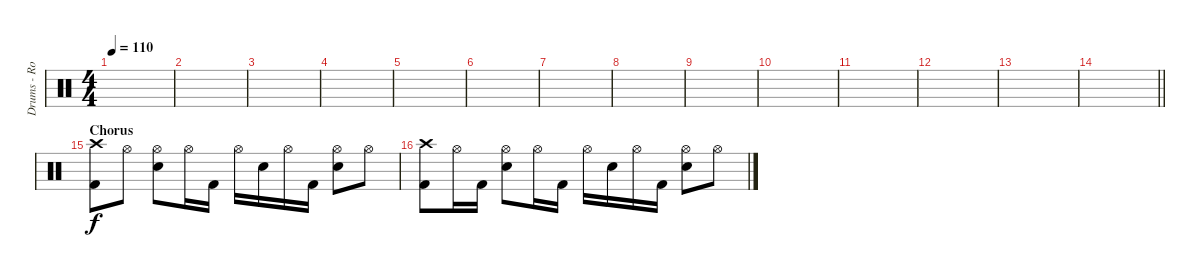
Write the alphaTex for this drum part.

\track ("Drums - Rob Bourdon" "Drums - Ro") {instrument percussion}
\staff {score}
\articulation defaults
\ts (4 4)
\tempo 110
\clef neutral
\ks c
|
|
|
|
|
|
|
|
|
|
|
|
|
\barLineRight lightlight
|
\section ("" "Chorus")
("Crash high (hit)" "Kick (hit) 2").8 "Hi-Hat (open)".8 ("Hi-Hat (open)" "Snare (hit) 2").8 "Hi-Hat (open)".16 "Kick (hit) 2".16 "Hi-Hat (open)".16 "Snare (hit) 2".16 "Hi-Hat (open)".16 "Kick (hit) 2".16 ("Hi-Hat (open)" "Snare (hit) 2").8 "Hi-Hat (open)".8 |
("Crash high (hit)" "Kick (hit) 2").8 "Hi-Hat (open)".16 "Kick (hit) 2".16 ("Hi-Hat (open)" "Snare (hit) 2").8 "Hi-Hat (open)".16 "Kick (hit) 2".16 "Hi-Hat (open)".16 "Snare (hit) 2".16 "Hi-Hat (open)".16 "Kick (hit) 2".16 ("Hi-Hat (open)" "Snare (hit) 2").8 "Hi-Hat (open)".8
